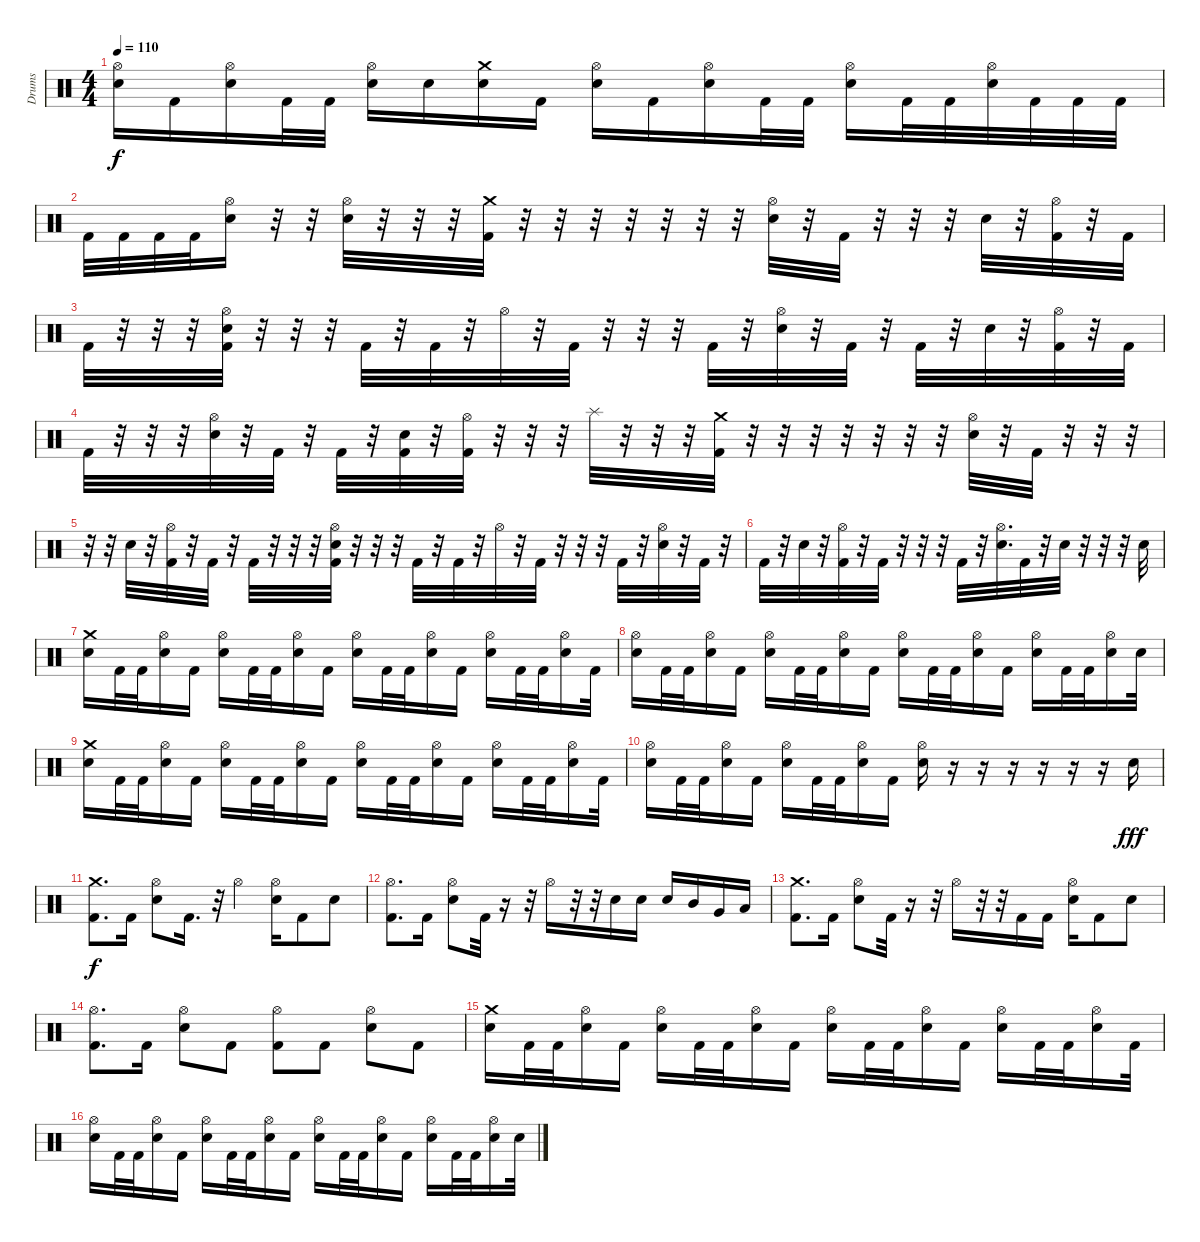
\track ("Drums" "Drums") {instrument percussion}
\staff {score}
\articulation defaults
\ts (4 4)
\tempo 110
\clef neutral
\ks c
("Hi-Hat (open)" "Snare (hit) 2").16{dy f} "Kick (hit) 2".16 ("Hi-Hat (open)" "Snare (hit) 2").16 "Kick (hit) 2".32 "Kick (hit) 2".32 ("Hi-Hat (open)" "Snare (hit) 2").16 "Snare (hit) 2".16 ("Crash medium (hit)" "Snare (hit) 2").16 "Kick (hit) 2".16 ("Hi-Hat (open)" "Snare (hit) 2").16 "Kick (hit) 2".16 ("Hi-Hat (open)" "Snare (hit) 2").16 "Kick (hit) 2".32 "Kick (hit) 2".32 ("Hi-Hat (open)" "Snare (hit) 2").16 "Kick (hit) 2".32 "Kick (hit) 2".32 ("Hi-Hat (open)" "Snare (hit) 2").32 "Kick (hit) 2".32 "Kick (hit) 2".32 "Kick (hit) 2".32 |
"Kick (hit) 2".32 "Kick (hit) 2".32 "Kick (hit) 2".32 "Kick (hit) 2".32 ("Hi-Hat (open)" "Snare (hit) 2").16 r.32 r.32 ("Hi-Hat (open)" "Snare (hit) 2").32 r.32 r.32 r.32 ("Crash medium (hit)" "Kick (hit) 2").32 r.32 r.32 r.32 r.32 r.32 r.32 r.32 ("Hi-Hat (open)" "Snare (hit) 2").32 r.32 "Kick (hit) 2".32 r.32 r.32 r.32 "Snare (hit) 2".32 r.32 ("Hi-Hat (open)" "Kick (hit) 2").32 r.32 "Kick (hit) 2".32 |
"Kick (hit) 2".32 r.32 r.32 r.32 ("Hi-Hat (open)" "Snare (hit) 2" "Kick (hit) 2").32 r.32 r.32 r.32 "Kick (hit) 2".32 r.32 "Kick (hit) 2".32 r.32 "Hi-Hat (open)".32 r.32 "Kick (hit) 2".32 r.32 r.32 r.32 "Kick (hit) 2".32 r.32 ("Hi-Hat (open)" "Snare (hit) 2").32 r.32 "Kick (hit) 2".32 r.32 "Kick (hit) 2".32 r.32 "Snare (hit) 2".32 r.32 ("Hi-Hat (open)" "Kick (hit) 2").32 r.32 "Kick (hit) 2".32 |
"Kick (hit) 2".32 r.32 r.32 r.32 ("Hi-Hat (open)" "Snare (hit) 2").32 r.32 "Kick (hit) 2".32 r.32 "Kick (hit) 2".32 r.32 ("Snare (hit) 2" "Kick (hit) 2").32 r.32 ("Hi-Hat (open)" "Kick (hit) 2").32 r.32 r.32 r.32 "Splash (hit)".32 r.32 r.32 r.32 ("Crash medium (hit)" "Kick (hit) 2").32 r.32 r.32 r.32 r.32 r.32 r.32 r.32 ("Hi-Hat (open)" "Snare (hit) 2").32 r.32 "Kick (hit) 2".32 r.32 r.32 r.32 |
r.32 r.32 "Snare (hit) 2".32 r.32 ("Hi-Hat (open)" "Kick (hit) 2").32 r.32 "Kick (hit) 2".32 r.32 "Kick (hit) 2".32 r.32 r.32 r.32 ("Hi-Hat (open)" "Snare (hit) 2" "Kick (hit) 2").32 r.32 r.32 r.32 "Kick (hit) 2".32 r.32 "Kick (hit) 2".32 r.32 "Hi-Hat (open)".32 r.32 "Kick (hit) 2".32 r.32 r.32 r.32 "Kick (hit) 2".32 r.32 ("Hi-Hat (open)" "Snare (hit) 2").32 r.32 "Kick (hit) 2".32 r.32 |
"Kick (hit) 2".32 r.32 "Snare (hit) 2".32 r.32 ("Hi-Hat (open)" "Kick (hit) 2").32 r.32 "Kick (hit) 2".32 r.32 r.32 r.32 "Kick (hit) 2".32 r.32 ("Hi-Hat (open)" "Snare (hit) 2").32{d} "Kick (hit) 2".32 r.32 "Snare (hit) 2".32 r.32 r.32 r.32 "Snare (hit) 2".32 |
("Crash medium (hit)" "Snare (hit) 2").16 "Kick (hit) 2".32 "Kick (hit) 2".32 ("Hi-Hat (open)" "Snare (hit) 2").16 "Kick (hit) 2".16 ("Hi-Hat (open)" "Snare (hit) 2").16 "Kick (hit) 2".32 "Kick (hit) 2".32 ("Hi-Hat (open)" "Snare (hit) 2").16 "Kick (hit) 2".16 ("Hi-Hat (open)" "Snare (hit) 2").16 "Kick (hit) 2".32 "Kick (hit) 2".32 ("Hi-Hat (open)" "Snare (hit) 2").16 "Kick (hit) 2".16 ("Hi-Hat (open)" "Snare (hit) 2").16 "Kick (hit) 2".32 "Kick (hit) 2".32 ("Hi-Hat (open)" "Snare (hit) 2").16 "Kick (hit) 2".32 |
("Hi-Hat (open)" "Snare (hit) 2").16 "Kick (hit) 2".32 "Kick (hit) 2".32 ("Hi-Hat (open)" "Snare (hit) 2").16 "Kick (hit) 2".16 ("Hi-Hat (open)" "Snare (hit) 2").16 "Kick (hit) 2".32 "Kick (hit) 2".32 ("Hi-Hat (open)" "Snare (hit) 2").16 "Kick (hit) 2".16 ("Hi-Hat (open)" "Snare (hit) 2").16 "Kick (hit) 2".32 "Kick (hit) 2".32 ("Hi-Hat (open)" "Snare (hit) 2").16 "Kick (hit) 2".16 ("Hi-Hat (open)" "Snare (hit) 2").16 "Kick (hit) 2".32 "Kick (hit) 2".32 ("Hi-Hat (open)" "Snare (hit) 2").16 "Snare (hit) 2".32 |
("Crash medium (hit)" "Snare (hit) 2").16 "Kick (hit) 2".32 "Kick (hit) 2".32 ("Hi-Hat (open)" "Snare (hit) 2").16 "Kick (hit) 2".16 ("Hi-Hat (open)" "Snare (hit) 2").16 "Kick (hit) 2".32 "Kick (hit) 2".32 ("Hi-Hat (open)" "Snare (hit) 2").16 "Kick (hit) 2".16 ("Hi-Hat (open)" "Snare (hit) 2").16 "Kick (hit) 2".32 "Kick (hit) 2".32 ("Hi-Hat (open)" "Snare (hit) 2").16 "Kick (hit) 2".16 ("Hi-Hat (open)" "Snare (hit) 2").16 "Kick (hit) 2".32 "Kick (hit) 2".32 ("Hi-Hat (open)" "Snare (hit) 2").16 "Kick (hit) 2".32 |
("Hi-Hat (open)" "Snare (hit) 2").16 "Kick (hit) 2".32 "Kick (hit) 2".32 ("Hi-Hat (open)" "Snare (hit) 2").16 "Kick (hit) 2".16 ("Hi-Hat (open)" "Snare (hit) 2").16 "Kick (hit) 2".32 "Kick (hit) 2".32 ("Hi-Hat (open)" "Snare (hit) 2").16 "Kick (hit) 2".16 ("Hi-Hat (open)" "Snare (hit) 2").16 r.16 r.16 r.16 r.16 r.16 r.16 "Snare (hit) 2".16{dy fff} |
("Crash medium (hit)" "Kick (hit) 2").8{d dy f} "Kick (hit) 2".16 ("Hi-Hat (open)" "Snare (hit) 2").8 "Kick (hit) 2".16{d} r.32 "Hi-Hat (open)".4 ("Hi-Hat (open)" "Snare (hit) 2").16 "Kick (hit) 2".8 "Snare (hit) 2".8 |
("Hi-Hat (open)" "Kick (hit) 2").8{d} "Kick (hit) 2".16 ("Hi-Hat (open)" "Snare (hit) 2").8 "Kick (hit) 2".32 r.16 r.32 "Hi-Hat (open)".16 r.32 r.32 "Snare (hit) 2".16 "Snare (hit) 2".16 "Snare (hit) 2".16 "Mid Tom (hit)".16 "Very Low Tom (hit)".16 "Low Floor Tom (hit)".16 |
("Crash medium (hit)" "Kick (hit) 2").8{d} "Kick (hit) 2".16 ("Hi-Hat (open)" "Snare (hit) 2").8 "Kick (hit) 2".32 r.16 r.32 "Hi-Hat (open)".16 r.32 r.32 "Kick (hit) 2".16 "Kick (hit) 2".16 ("Hi-Hat (open)" "Snare (hit) 2").16 "Kick (hit) 2".8 "Snare (hit) 2".8 |
("Hi-Hat (open)" "Kick (hit) 2").8{d} "Kick (hit) 2".16 ("Hi-Hat (open)" "Snare (hit) 2").8 "Kick (hit) 2".8 ("Hi-Hat (open)" "Kick (hit) 2").8 "Kick (hit) 2".8 ("Hi-Hat (open)" "Snare (hit) 2").8 "Kick (hit) 2".8 |
("Crash medium (hit)" "Snare (hit) 2").16 "Kick (hit) 2".32 "Kick (hit) 2".32 ("Hi-Hat (open)" "Snare (hit) 2").16 "Kick (hit) 2".16 ("Hi-Hat (open)" "Snare (hit) 2").16 "Kick (hit) 2".32 "Kick (hit) 2".32 ("Hi-Hat (open)" "Snare (hit) 2").16 "Kick (hit) 2".16 ("Hi-Hat (open)" "Snare (hit) 2").16 "Kick (hit) 2".32 "Kick (hit) 2".32 ("Hi-Hat (open)" "Snare (hit) 2").16 "Kick (hit) 2".16 ("Hi-Hat (open)" "Snare (hit) 2").16 "Kick (hit) 2".32 "Kick (hit) 2".32 ("Hi-Hat (open)" "Snare (hit) 2").16 "Kick (hit) 2".32 |
("Hi-Hat (open)" "Snare (hit) 2").16 "Kick (hit) 2".32 "Kick (hit) 2".32 ("Hi-Hat (open)" "Snare (hit) 2").16 "Kick (hit) 2".16 ("Hi-Hat (open)" "Snare (hit) 2").16 "Kick (hit) 2".32 "Kick (hit) 2".32 ("Hi-Hat (open)" "Snare (hit) 2").16 "Kick (hit) 2".16 ("Hi-Hat (open)" "Snare (hit) 2").16 "Kick (hit) 2".32 "Kick (hit) 2".32 ("Hi-Hat (open)" "Snare (hit) 2").16 "Kick (hit) 2".16 ("Hi-Hat (open)" "Snare (hit) 2").16 "Kick (hit) 2".32 "Kick (hit) 2".32 ("Hi-Hat (open)" "Snare (hit) 2").16 "Snare (hit) 2".32
